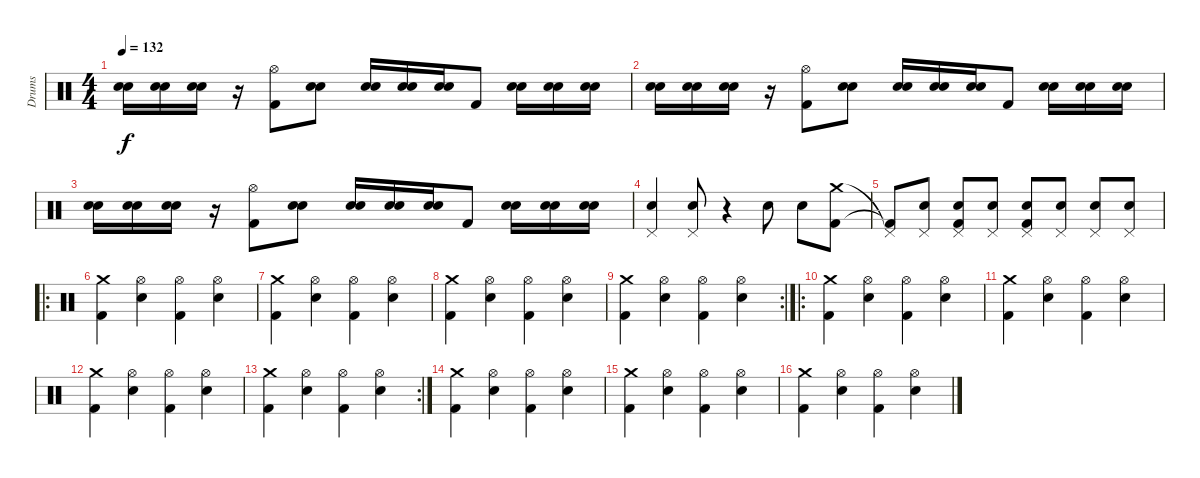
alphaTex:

\track ("Drums" "Drums") {instrument percussion}
\staff {score}
\articulation defaults
\ts (4 4)
\tempo 132
\clef neutral
\ks c
("Snare (hit) 2" "Electric Snare (hit)").16{dy f} ("Snare (hit) 2" "Electric Snare (hit)").16 ("Snare (hit) 2" "Electric Snare (hit)").16 r.16 ("Kick (hit) 2" "Hi-Hat (open)").8 ("Snare (hit) 2" "Electric Snare (hit)").8 ("Snare (hit) 2" "Electric Snare (hit)").16 ("Snare (hit) 2" "Electric Snare (hit)").16 ("Snare (hit) 2" "Electric Snare (hit)").16 "Kick (hit) 2".8 ("Snare (hit) 2" "Electric Snare (hit)").16 ("Snare (hit) 2" "Electric Snare (hit)").16 ("Snare (hit) 2" "Electric Snare (hit)").16 |
("Snare (hit) 2" "Electric Snare (hit)").16 ("Snare (hit) 2" "Electric Snare (hit)").16 ("Snare (hit) 2" "Electric Snare (hit)").16 r.16 ("Kick (hit) 2" "Hi-Hat (open)").8 ("Snare (hit) 2" "Electric Snare (hit)").8 ("Snare (hit) 2" "Electric Snare (hit)").16 ("Snare (hit) 2" "Electric Snare (hit)").16 ("Snare (hit) 2" "Electric Snare (hit)").16 "Kick (hit) 2".8 ("Snare (hit) 2" "Electric Snare (hit)").16 ("Snare (hit) 2" "Electric Snare (hit)").16 ("Snare (hit) 2" "Electric Snare (hit)").16 |
("Snare (hit) 2" "Electric Snare (hit)").16 ("Snare (hit) 2" "Electric Snare (hit)").16 ("Snare (hit) 2" "Electric Snare (hit)").16 r.16 ("Kick (hit) 2" "Hi-Hat (open)").8 ("Snare (hit) 2" "Electric Snare (hit)").8 ("Snare (hit) 2" "Electric Snare (hit)").16 ("Snare (hit) 2" "Electric Snare (hit)").16 ("Snare (hit) 2" "Electric Snare (hit)").16 "Kick (hit) 2".8 ("Snare (hit) 2" "Electric Snare (hit)").16 ("Snare (hit) 2" "Electric Snare (hit)").16 ("Snare (hit) 2" "Electric Snare (hit)").16 |
("Snare (hit) 2" "Pedal Hi-Hat (hit)").4 ("Snare (hit) 2" "Pedal Hi-Hat (hit)").8 r.4 "Snare (hit) 2".8 "Snare (hit) 2".8 ("Kick (hit) 2" "Crash medium (hit)").8 |
("Kick (hit) 2"{t} "Pedal Hi-Hat (hit)"{t}).8 ("Electric Snare (hit)" "Pedal Hi-Hat (hit)").8 ("Kick (hit) 2" "Electric Snare (hit)" "Pedal Hi-Hat (hit)").8 ("Electric Snare (hit)" "Pedal Hi-Hat (hit)").8 ("Kick (hit) 2" "Electric Snare (hit)" "Pedal Hi-Hat (hit)").8 ("Electric Snare (hit)" "Pedal Hi-Hat (hit)").8 ("Electric Snare (hit)" "Pedal Hi-Hat (hit)").8 ("Electric Snare (hit)" "Pedal Hi-Hat (hit)").8 |
\ro
("Kick (hit) 2" "Crash medium (hit)").4{volume 9} ("Electric Snare (hit)" "Hi-Hat (open)").4 ("Kick (hit) 2" "Hi-Hat (open)").4 ("Electric Snare (hit)" "Hi-Hat (open)").4 |
("Kick (hit) 2" "Crash medium (hit)").4 ("Electric Snare (hit)" "Hi-Hat (open)").4 ("Kick (hit) 2" "Hi-Hat (open)").4 ("Electric Snare (hit)" "Hi-Hat (open)").4 |
("Kick (hit) 2" "Crash medium (hit)").4 ("Electric Snare (hit)" "Hi-Hat (open)").4 ("Kick (hit) 2" "Hi-Hat (open)").4 ("Electric Snare (hit)" "Hi-Hat (open)").4 |
\rc 2
("Kick (hit) 2" "Crash medium (hit)").4 ("Electric Snare (hit)" "Hi-Hat (open)").4 ("Kick (hit) 2" "Hi-Hat (open)").4 ("Electric Snare (hit)" "Hi-Hat (open)").4 |
\ro
("Kick (hit) 2" "Crash medium (hit)").4 ("Electric Snare (hit)" "Hi-Hat (open)").4 ("Kick (hit) 2" "Hi-Hat (open)").4 ("Electric Snare (hit)" "Hi-Hat (open)").4 |
("Kick (hit) 2" "Crash medium (hit)").4 ("Electric Snare (hit)" "Hi-Hat (open)").4 ("Kick (hit) 2" "Hi-Hat (open)").4 ("Electric Snare (hit)" "Hi-Hat (open)").4 |
("Kick (hit) 2" "Crash medium (hit)").4 ("Electric Snare (hit)" "Hi-Hat (open)").4 ("Kick (hit) 2" "Hi-Hat (open)").4 ("Electric Snare (hit)" "Hi-Hat (open)").4 |
\rc 2
("Kick (hit) 2" "Crash medium (hit)").4 ("Electric Snare (hit)" "Hi-Hat (open)").4 ("Kick (hit) 2" "Hi-Hat (open)").4 ("Electric Snare (hit)" "Hi-Hat (open)").4 |
("Kick (hit) 2" "Crash medium (hit)").4{volume 9} ("Electric Snare (hit)" "Hi-Hat (open)").4 ("Kick (hit) 2" "Hi-Hat (open)").4 ("Electric Snare (hit)" "Hi-Hat (open)").4 |
("Kick (hit) 2" "Crash medium (hit)").4 ("Electric Snare (hit)" "Hi-Hat (open)").4 ("Kick (hit) 2" "Hi-Hat (open)").4 ("Electric Snare (hit)" "Hi-Hat (open)").4 |
("Kick (hit) 2" "Crash medium (hit)").4 ("Electric Snare (hit)" "Hi-Hat (open)").4 ("Kick (hit) 2" "Hi-Hat (open)").4 ("Electric Snare (hit)" "Hi-Hat (open)").4
